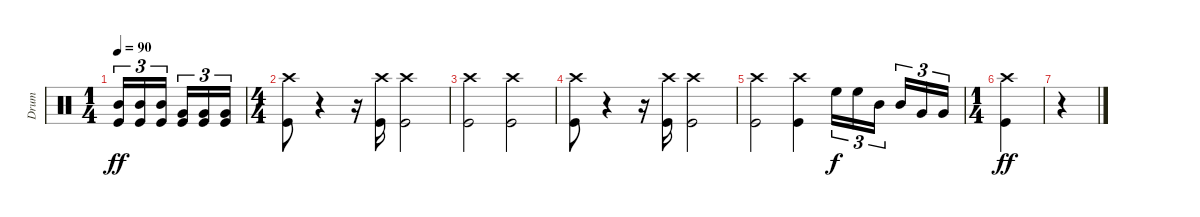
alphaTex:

\track ("Drum" "Drum") {instrument percussion}
\staff {score}
\articulation defaults
\ts (1 4)
\tempo 90
\clef neutral
\ks c
("Mid Tom (hit)" "Kick (hit)").16{tu (3 2) dy ff} ("Mid Tom (hit)" "Kick (hit)").16{tu (3 2)} ("Mid Tom (hit)" "Kick (hit)").16{tu (3 2) beam splitsecondary} ("Very Low Tom (hit)" "Kick (hit)").16{tu (3 2)} ("Very Low Tom (hit)" "Kick (hit)").16{tu (3 2)} ("Very Low Tom (hit)" "Kick (hit)").16{tu (3 2)} |
\ts (4 4)
("Crash high (hit)" "Kick (hit)").8 r.4 r.16 ("Crash high (hit)" "Kick (hit)").16 ("Crash high (hit)" "Kick (hit)").2 |
("Crash high (hit)" "Kick (hit)").2 ("Crash high (hit)" "Kick (hit)").2 |
("Crash high (hit)" "Kick (hit)").8 r.4 r.16 ("Crash high (hit)" "Kick (hit)").16 ("Crash high (hit)" "Kick (hit)").2 |
("Crash high (hit)" "Kick (hit)").2 ("Crash high (hit)" "Kick (hit)").4 "High Floor Tom (hit)".16{tu (3 2) dy f} "High Floor Tom (hit)".16{tu (3 2)} "Mid Tom (hit)".16{tu (3 2) beam splitsecondary} "Mid Tom (hit)".16{tu (3 2)} "Very Low Tom (hit)".16{tu (3 2)} "Very Low Tom (hit)".16{tu (3 2)} |
\ts (1 4)
("Crash high (hit)" "Kick (hit)").4{dy ff} |
r.4
